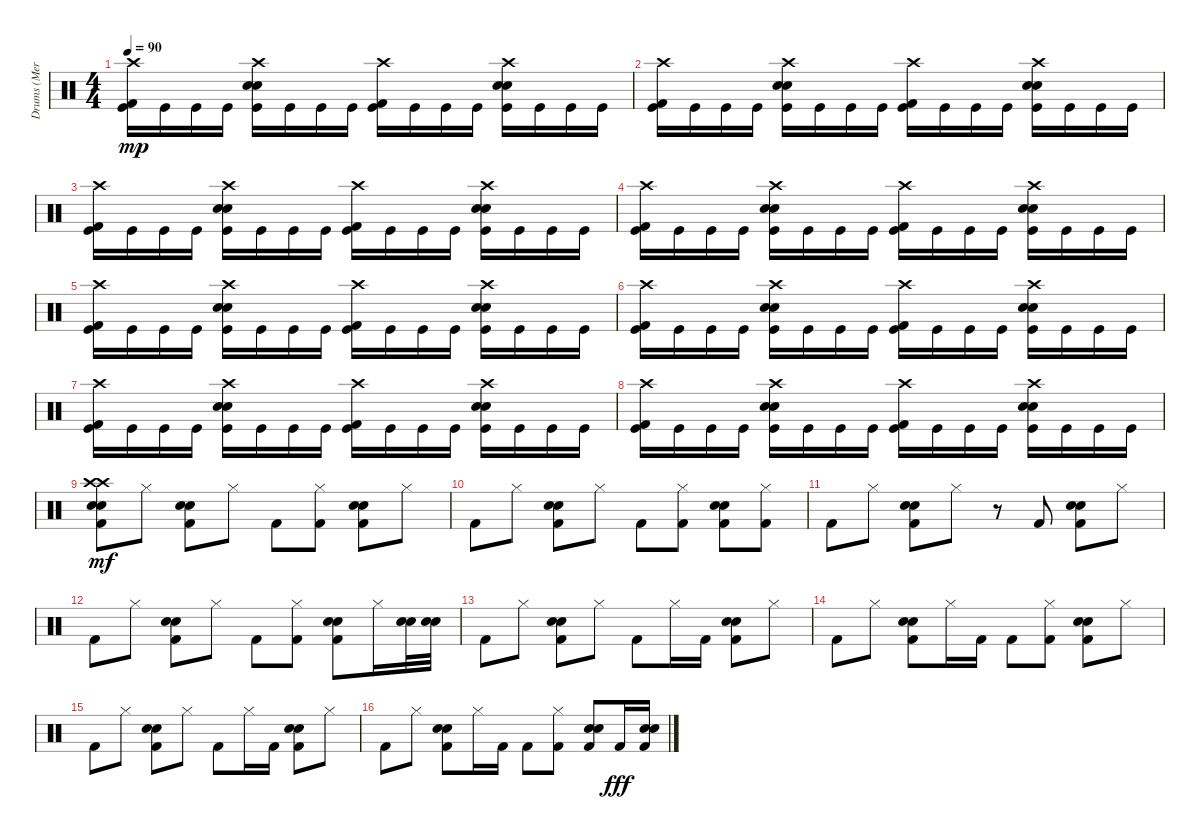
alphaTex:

\track ("Drums (Merlin)" "Drums (Mer") {instrument percussion}
\staff {score}
\articulation defaults
\ts (4 4)
\tempo 90
\clef neutral
\ks c
("Crash high (hit)" "Kick (hit) 2" "Kick (hit)").16{dy mp} "Kick (hit)".16 "Kick (hit)".16 "Kick (hit)".16 ("Electric Snare (hit)" "Crash high (hit)" "Snare (hit) 2" "Kick (hit)").16 "Kick (hit)".16 "Kick (hit)".16 "Kick (hit)".16 ("Crash high (hit)" "Kick (hit) 2" "Kick (hit)").16 "Kick (hit)".16 "Kick (hit)".16 "Kick (hit)".16 ("Electric Snare (hit)" "Crash high (hit)" "Snare (hit) 2" "Kick (hit)").16 "Kick (hit)".16 "Kick (hit)".16 "Kick (hit)".16 |
("Crash high (hit)" "Kick (hit) 2" "Kick (hit)").16 "Kick (hit)".16 "Kick (hit)".16 "Kick (hit)".16 ("Electric Snare (hit)" "Crash high (hit)" "Snare (hit) 2" "Kick (hit)").16 "Kick (hit)".16 "Kick (hit)".16 "Kick (hit)".16 ("Crash high (hit)" "Kick (hit) 2" "Kick (hit)").16 "Kick (hit)".16 "Kick (hit)".16 "Kick (hit)".16 ("Electric Snare (hit)" "Crash high (hit)" "Snare (hit) 2" "Kick (hit)").16 "Kick (hit)".16 "Kick (hit)".16 "Kick (hit)".16 |
("Crash high (hit)" "Kick (hit) 2" "Kick (hit)").16 "Kick (hit)".16 "Kick (hit)".16 "Kick (hit)".16 ("Electric Snare (hit)" "Crash high (hit)" "Snare (hit) 2" "Kick (hit)").16 "Kick (hit)".16 "Kick (hit)".16 "Kick (hit)".16 ("Crash high (hit)" "Kick (hit) 2" "Kick (hit)").16 "Kick (hit)".16 "Kick (hit)".16 "Kick (hit)".16 ("Electric Snare (hit)" "Crash high (hit)" "Snare (hit) 2" "Kick (hit)").16 "Kick (hit)".16 "Kick (hit)".16 "Kick (hit)".16 |
("Crash high (hit)" "Kick (hit) 2" "Kick (hit)").16 "Kick (hit)".16 "Kick (hit)".16 "Kick (hit)".16 ("Electric Snare (hit)" "Crash high (hit)" "Snare (hit) 2" "Kick (hit)").16 "Kick (hit)".16 "Kick (hit)".16 "Kick (hit)".16 ("Crash high (hit)" "Kick (hit) 2" "Kick (hit)").16 "Kick (hit)".16 "Kick (hit)".16 "Kick (hit)".16 ("Electric Snare (hit)" "Crash high (hit)" "Snare (hit) 2" "Kick (hit)").16 "Kick (hit)".16 "Kick (hit)".16 "Kick (hit)".16 |
("Crash high (hit)" "Kick (hit) 2" "Kick (hit)").16 "Kick (hit)".16 "Kick (hit)".16 "Kick (hit)".16 ("Electric Snare (hit)" "Crash high (hit)" "Snare (hit) 2" "Kick (hit)").16 "Kick (hit)".16 "Kick (hit)".16 "Kick (hit)".16 ("Crash high (hit)" "Kick (hit) 2" "Kick (hit)").16 "Kick (hit)".16 "Kick (hit)".16 "Kick (hit)".16 ("Electric Snare (hit)" "Crash high (hit)" "Snare (hit) 2" "Kick (hit)").16 "Kick (hit)".16 "Kick (hit)".16 "Kick (hit)".16 |
("Crash high (hit)" "Kick (hit) 2" "Kick (hit)").16 "Kick (hit)".16 "Kick (hit)".16 "Kick (hit)".16 ("Electric Snare (hit)" "Crash high (hit)" "Snare (hit) 2" "Kick (hit)").16 "Kick (hit)".16 "Kick (hit)".16 "Kick (hit)".16 ("Crash high (hit)" "Kick (hit) 2" "Kick (hit)").16 "Kick (hit)".16 "Kick (hit)".16 "Kick (hit)".16 ("Electric Snare (hit)" "Crash high (hit)" "Snare (hit) 2" "Kick (hit)").16 "Kick (hit)".16 "Kick (hit)".16 "Kick (hit)".16 |
("Crash high (hit)" "Kick (hit) 2" "Kick (hit)").16 "Kick (hit)".16 "Kick (hit)".16 "Kick (hit)".16 ("Electric Snare (hit)" "Crash high (hit)" "Snare (hit) 2" "Kick (hit)").16 "Kick (hit)".16 "Kick (hit)".16 "Kick (hit)".16 ("Crash high (hit)" "Kick (hit) 2" "Kick (hit)").16 "Kick (hit)".16 "Kick (hit)".16 "Kick (hit)".16 ("Electric Snare (hit)" "Crash high (hit)" "Snare (hit) 2" "Kick (hit)").16 "Kick (hit)".16 "Kick (hit)".16 "Kick (hit)".16 |
("Crash high (hit)" "Kick (hit) 2" "Kick (hit)").16 "Kick (hit)".16 "Kick (hit)".16 "Kick (hit)".16 ("Electric Snare (hit)" "Crash high (hit)" "Snare (hit) 2" "Kick (hit)").16 "Kick (hit)".16 "Kick (hit)".16 "Kick (hit)".16 ("Crash high (hit)" "Kick (hit) 2" "Kick (hit)").16 "Kick (hit)".16 "Kick (hit)".16 "Kick (hit)".16 ("Electric Snare (hit)" "Crash high (hit)" "Snare (hit) 2" "Kick (hit)").16 "Kick (hit)".16 "Kick (hit)".16 "Kick (hit)".16 |
("Crash high (hit)" "Crash high (hit)" "Electric Snare (hit)" "Snare (hit) 2" "Kick (hit) 2").8{dy mf} "Hi-Hat (closed)".8 ("Electric Snare (hit)" "Snare (hit) 2" "Kick (hit) 2").8 "Hi-Hat (closed)".8 "Kick (hit) 2".8 ("Hi-Hat (closed)" "Kick (hit) 2").8 ("Electric Snare (hit)" "Snare (hit) 2" "Kick (hit) 2").8 "Hi-Hat (closed)".8 |
"Kick (hit) 2".8 "Hi-Hat (closed)".8 ("Electric Snare (hit)" "Snare (hit) 2" "Kick (hit) 2").8 "Hi-Hat (closed)".8 "Kick (hit) 2".8 ("Hi-Hat (closed)" "Kick (hit) 2").8 ("Electric Snare (hit)" "Snare (hit) 2" "Kick (hit) 2").8 ("Hi-Hat (closed)" "Kick (hit) 2").8 |
"Kick (hit) 2".8 "Hi-Hat (closed)".8 ("Electric Snare (hit)" "Snare (hit) 2" "Kick (hit) 2").8 "Hi-Hat (closed)".8 r.8 "Kick (hit) 2".8 ("Electric Snare (hit)" "Snare (hit) 2" "Kick (hit) 2").8 "Hi-Hat (closed)".8 |
"Kick (hit) 2".8 "Hi-Hat (closed)".8 ("Electric Snare (hit)" "Snare (hit) 2" "Kick (hit) 2").8 "Hi-Hat (closed)".8 "Kick (hit) 2".8 ("Hi-Hat (closed)" "Kick (hit) 2").8 ("Electric Snare (hit)" "Snare (hit) 2" "Kick (hit) 2").8 "Hi-Hat (closed)".16 ("Electric Snare (hit)" "Snare (hit) 2").32 ("Electric Snare (hit)" "Snare (hit) 2").32 |
"Kick (hit) 2".8 "Hi-Hat (closed)".8 ("Electric Snare (hit)" "Snare (hit) 2" "Kick (hit) 2").8 "Hi-Hat (closed)".8 "Kick (hit) 2".8 "Hi-Hat (closed)".16 "Kick (hit) 2".16 ("Electric Snare (hit)" "Snare (hit) 2" "Kick (hit) 2").8 "Hi-Hat (closed)".8 |
"Kick (hit) 2".8 "Hi-Hat (closed)".8 ("Electric Snare (hit)" "Snare (hit) 2" "Kick (hit) 2").8 "Hi-Hat (closed)".16 "Kick (hit) 2".16 "Kick (hit) 2".8 ("Hi-Hat (closed)" "Kick (hit) 2").8 ("Electric Snare (hit)" "Snare (hit) 2" "Kick (hit) 2").8 "Hi-Hat (closed)".8 |
"Kick (hit) 2".8 "Hi-Hat (closed)".8 ("Electric Snare (hit)" "Snare (hit) 2" "Kick (hit) 2").8 "Hi-Hat (closed)".8 "Kick (hit) 2".8 "Hi-Hat (closed)".16 "Kick (hit) 2".16 ("Electric Snare (hit)" "Snare (hit) 2" "Kick (hit) 2").8 "Hi-Hat (closed)".8 |
"Kick (hit) 2".8 "Hi-Hat (closed)".8 ("Electric Snare (hit)" "Snare (hit) 2" "Kick (hit) 2").8 "Hi-Hat (closed)".16 "Kick (hit) 2".16 "Kick (hit) 2".8 ("Hi-Hat (closed)" "Kick (hit) 2").8 ("Electric Snare (hit)" "Snare (hit) 2" "Kick (hit) 2").8 "Kick (hit) 2".16{dy fff} ("Electric Snare (hit)" "Snare (hit) 2" "Kick (hit) 2").16
